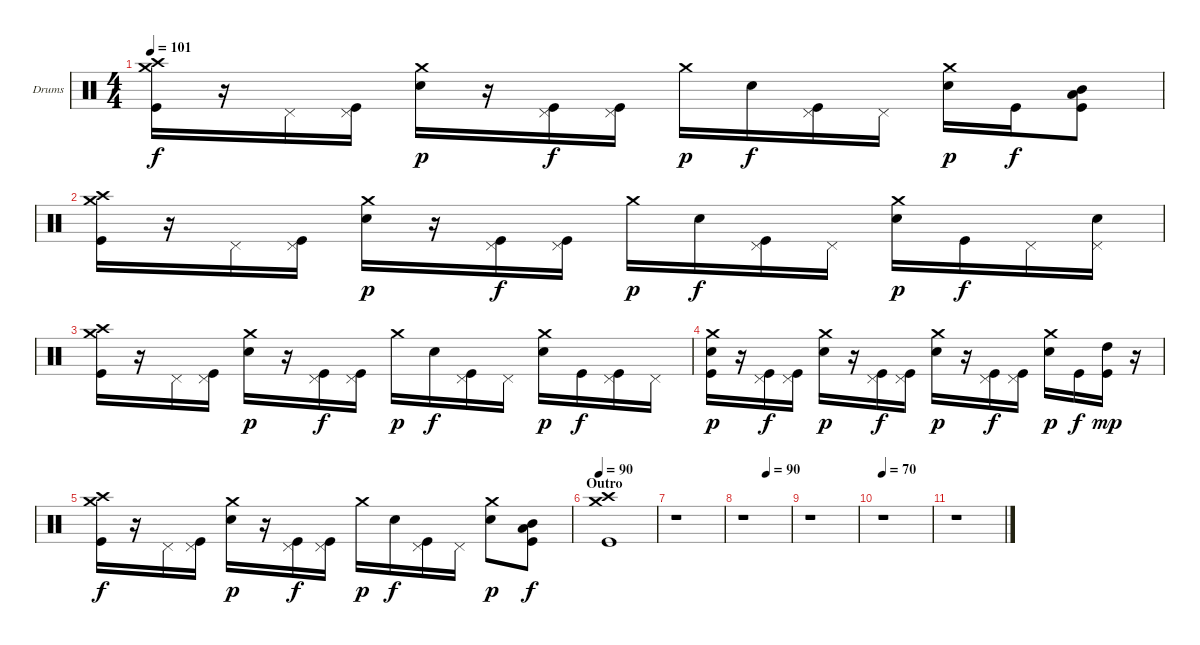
\bracketExtendMode groupsimilarinstruments
\firstSystemTrackNameOrientation horizontal
\otherSystemsTrackNameOrientation horizontal
\track ("Drumkit" "Drums") {instrument percussion}
\staff {score}
\articulation defaults
\ts (4 4)
\tempo 101
\clef neutral
\ks c
("Crash high (hit)" "Crash medium (hit)" "Kick (hit)").16{dy f} r.16 "Pedal Hi-Hat (hit)".16 ("Pedal Hi-Hat (hit)" "Kick (hit)").16 ("Crash medium (hit)" "Snare (hit) 2").16{dy p} r.16 ("Pedal Hi-Hat (hit)" "Kick (hit)").16{dy f} ("Pedal Hi-Hat (hit)" "Kick (hit)").16 "Crash medium (hit)".16{dy p} "Snare (hit) 2".16{dy f} ("Pedal Hi-Hat (hit)" "Kick (hit)").16 "Pedal Hi-Hat (hit)".16 ("Crash medium (hit)" "Snare (hit) 2").16{dy p} "Kick (hit)".16{dy f} ("Low Tom (hit)" "Mid Tom (hit)" "Kick (hit)").8 |
("Crash high (hit)" "Crash medium (hit)" "Kick (hit)").16 r.16 "Pedal Hi-Hat (hit)".16 ("Pedal Hi-Hat (hit)" "Kick (hit)").16 ("Crash medium (hit)" "Snare (hit) 2").16{dy p} r.16 ("Pedal Hi-Hat (hit)" "Kick (hit)").16{dy f} ("Pedal Hi-Hat (hit)" "Kick (hit)").16 "Crash medium (hit)".16{dy p} "Snare (hit) 2".16{dy f} ("Pedal Hi-Hat (hit)" "Kick (hit)").16 "Pedal Hi-Hat (hit)".16 ("Crash medium (hit)" "Snare (hit) 2").16{dy p} "Kick (hit)".16{dy f} "Pedal Hi-Hat (hit)".16 ("Pedal Hi-Hat (hit)" "Snare (hit) 2").16 |
("Crash high (hit)" "Crash medium (hit)" "Kick (hit)").16 r.16 "Pedal Hi-Hat (hit)".16 ("Pedal Hi-Hat (hit)" "Kick (hit)").16 ("Crash medium (hit)" "Snare (hit) 2").16{dy p} r.16 ("Pedal Hi-Hat (hit)" "Kick (hit)").16{dy f} ("Pedal Hi-Hat (hit)" "Kick (hit)").16 "Crash medium (hit)".16{dy p} "Snare (hit) 2".16{dy f} ("Pedal Hi-Hat (hit)" "Kick (hit)").16 "Pedal Hi-Hat (hit)".16 ("Crash medium (hit)" "Snare (hit) 2").16{dy p} "Kick (hit)".16{dy f} ("Pedal Hi-Hat (hit)" "Kick (hit)").16 "Pedal Hi-Hat (hit)".16 |
("Crash medium (hit)" "Snare (hit) 2" "Kick (hit)").16{dy p} r.16 ("Pedal Hi-Hat (hit)" "Kick (hit)").16{dy f} ("Pedal Hi-Hat (hit)" "Kick (hit)").16 ("Crash medium (hit)" "Snare (hit) 2").16{dy p} r.16 ("Pedal Hi-Hat (hit)" "Kick (hit)").16{dy f} ("Pedal Hi-Hat (hit)" "Kick (hit)").16 ("Crash medium (hit)" "Snare (hit) 2").16{dy p} r.16 ("Pedal Hi-Hat (hit)" "Kick (hit)").16{dy f} ("Pedal Hi-Hat (hit)" "Kick (hit)").16 ("Crash medium (hit)" "Snare (hit) 2").16{dy p} "Kick (hit)".16{dy f} ("High Tom (hit)" "Kick (hit)").16{dy mp} r.16 |
("Crash high (hit)" "Crash medium (hit)" "Kick (hit)").16{dy f} r.16 "Pedal Hi-Hat (hit)".16 ("Pedal Hi-Hat (hit)" "Kick (hit)").16 ("Crash medium (hit)" "Snare (hit) 2").16{dy p} r.16 ("Pedal Hi-Hat (hit)" "Kick (hit)").16{dy f} ("Pedal Hi-Hat (hit)" "Kick (hit)").16 "Crash medium (hit)".16{dy p} "Snare (hit) 2".16{dy f} ("Pedal Hi-Hat (hit)" "Kick (hit)").16 "Pedal Hi-Hat (hit)".16 ("Crash medium (hit)" "Snare (hit) 2").8{dy p} ("Low Tom (hit)" "Mid Tom (hit)" "Kick (hit)").8{dy f} |
\section ("" "Outro")
\tempo 90
("Crash high (hit)" "Crash medium (hit)" "Kick (hit)").1 |
r.1 |
\tempo (90 0.5)
r.1 |
r.1 |
\tempo 70
r.1 |
r.1
